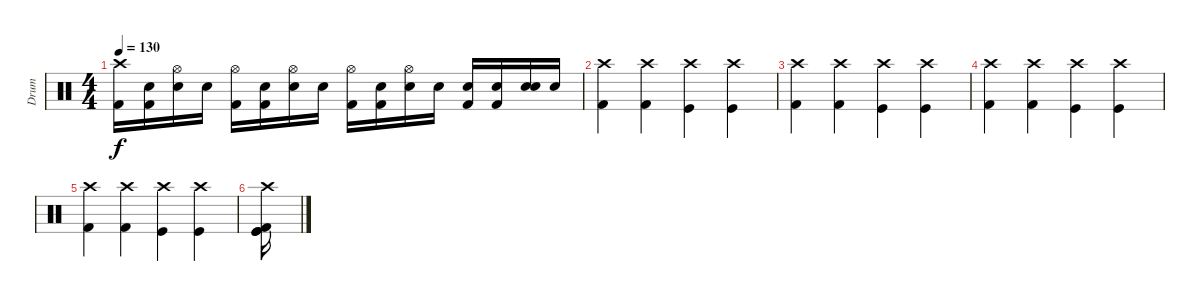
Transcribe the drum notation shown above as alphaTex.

\track ("Drum" "Drum") {instrument percussion}
\staff {score}
\articulation defaults
\ts (4 4)
\tempo 130
\clef neutral
\ks c
("Crash high (hit)" "Kick (hit) 2").16{dy f} ("Snare (hit)"{x} "Kick (hit) 2").16 ("Hi-Hat (open)" "Electric Snare (hit)").16 "Snare (hit)"{x}.16 ("Hi-Hat (open)" "Kick (hit) 2").16 ("Snare (hit)"{x} "Kick (hit) 2").16 ("Hi-Hat (open)" "Electric Snare (hit)").16 "Snare (hit)"{x}.16 ("Hi-Hat (open)" "Kick (hit) 2").16 ("Snare (hit)"{x} "Kick (hit) 2").16 ("Hi-Hat (open)" "Electric Snare (hit)").16 "Snare (hit)"{x}.16 ("Electric Snare (hit)" "Kick (hit) 2").16 ("Electric Snare (hit)" "Kick (hit) 2").16 ("Electric Snare (hit)" "Electric Snare (hit)").16 "Electric Snare (hit)".16 |
("Crash high (hit)" "Kick (hit) 2").4 ("Crash high (hit)" "Kick (hit) 2").4 ("Crash high (hit)" "Kick (hit)").4 ("Crash high (hit)" "Kick (hit)").4 |
("Crash high (hit)" "Kick (hit) 2").4 ("Crash high (hit)" "Kick (hit) 2").4 ("Crash high (hit)" "Kick (hit)").4 ("Crash high (hit)" "Kick (hit)").4 |
("Crash high (hit)" "Kick (hit) 2").4 ("Crash high (hit)" "Kick (hit) 2").4 ("Crash high (hit)" "Kick (hit)").4 ("Crash high (hit)" "Kick (hit)").4 |
("Crash high (hit)" "Kick (hit) 2").4 ("Crash high (hit)" "Kick (hit) 2").4 ("Crash high (hit)" "Kick (hit)").4 ("Crash high (hit)" "Kick (hit)").4 |
("Crash high (hit)" "Kick (hit) 2" "Kick (hit)" "Kick (hit)").16
